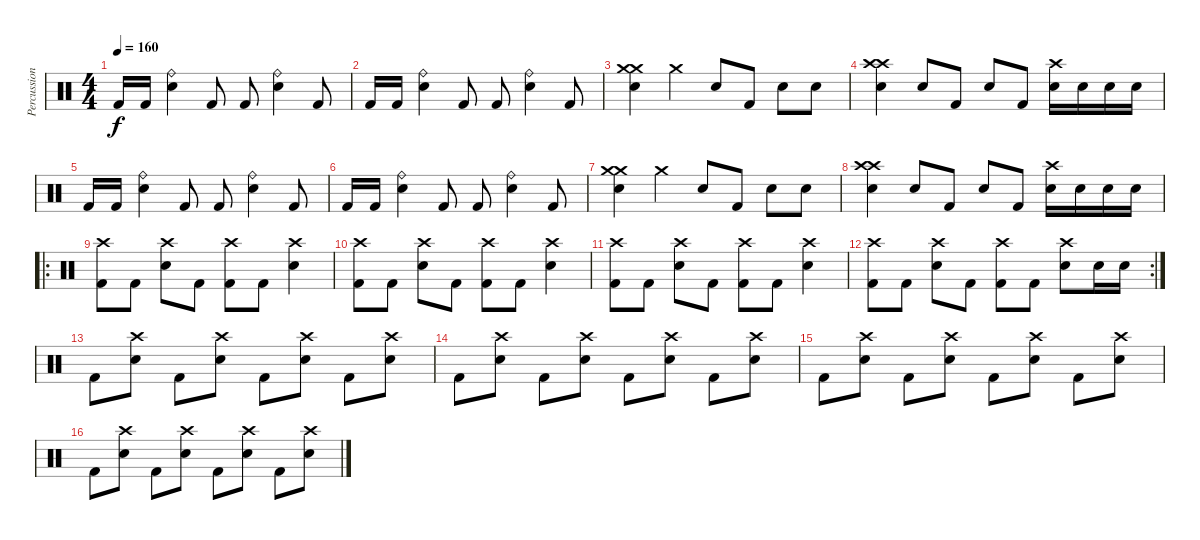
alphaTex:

\track ("Percussion" "Percussion") {instrument percussion}
\staff {score}
\articulation defaults
\ts (4 4)
\tempo 170
\tempo 160
\clef neutral
\ks c "Kick (hit) 2".16{dy f} "Kick (hit) 2".16
("Ride (bell)" "Electric Snare (hit)").4 "Kick (hit) 2".8 "Kick (hit) 2".8 ("Ride (bell)" "Electric Snare (hit)").4 "Kick (hit) 2".8 |
"Kick (hit) 2".16 "Kick (hit) 2".16 ("Ride (bell)" "Electric Snare (hit)").4 "Kick (hit) 2".8 "Kick (hit) 2".8 ("Ride (bell)" "Electric Snare (hit)").4 "Kick (hit) 2".8 |
("Crash medium (hit)" "Crash medium (hit)" "Electric Snare (hit)").4 "Crash medium (hit)".4 "Electric Snare (hit)".8 "Kick (hit) 2".8 "Electric Snare (hit)".8 "Electric Snare (hit)".8 |
("Crash high (hit)" "Crash high (hit)" "Electric Snare (hit)").4 "Electric Snare (hit)".8 "Kick (hit) 2".8 "Electric Snare (hit)".8 "Kick (hit) 2".8 ("Crash high (hit)" "Electric Snare (hit)").16 "Electric Snare (hit)".16 "Electric Snare (hit)".16 "Electric Snare (hit)".16 |
"Kick (hit) 2".16 "Kick (hit) 2".16 ("Ride (bell)" "Electric Snare (hit)").4 "Kick (hit) 2".8 "Kick (hit) 2".8 ("Ride (bell)" "Electric Snare (hit)").4 "Kick (hit) 2".8 |
"Kick (hit) 2".16 "Kick (hit) 2".16 ("Ride (bell)" "Electric Snare (hit)").4 "Kick (hit) 2".8 "Kick (hit) 2".8 ("Ride (bell)" "Electric Snare (hit)").4 "Kick (hit) 2".8 |
("Crash medium (hit)" "Crash medium (hit)" "Electric Snare (hit)").4 "Crash medium (hit)".4 "Electric Snare (hit)".8 "Kick (hit) 2".8 "Electric Snare (hit)".8 "Electric Snare (hit)".8 |
("Crash high (hit)" "Crash high (hit)" "Electric Snare (hit)").4 "Electric Snare (hit)".8 "Kick (hit) 2".8 "Electric Snare (hit)".8 "Kick (hit) 2".8 ("Crash high (hit)" "Electric Snare (hit)").16 "Electric Snare (hit)".16 "Electric Snare (hit)".16 "Electric Snare (hit)".16 |
\ro
("Crash high (hit)" "Kick (hit) 2").8 "Kick (hit) 2".8 ("Crash high (hit)" "Electric Snare (hit)").8 "Kick (hit) 2".8 ("Crash high (hit)" "Kick (hit) 2").8 "Kick (hit) 2".8 ("Crash high (hit)" "Electric Snare (hit)").4 |
("Crash high (hit)" "Kick (hit) 2").8 "Kick (hit) 2".8 ("Crash high (hit)" "Electric Snare (hit)").8 "Kick (hit) 2".8 ("Crash high (hit)" "Kick (hit) 2").8 "Kick (hit) 2".8 ("Crash high (hit)" "Electric Snare (hit)").4 |
("Crash high (hit)" "Kick (hit) 2").8 "Kick (hit) 2".8 ("Crash high (hit)" "Electric Snare (hit)").8 "Kick (hit) 2".8 ("Crash high (hit)" "Kick (hit) 2").8 "Kick (hit) 2".8 ("Crash high (hit)" "Electric Snare (hit)").4 |
\rc 2
("Crash high (hit)" "Kick (hit) 2").8 "Kick (hit) 2".8 ("Crash high (hit)" "Electric Snare (hit)").8 "Kick (hit) 2".8 ("Crash high (hit)" "Kick (hit) 2").8 "Kick (hit) 2".8 ("Crash high (hit)" "Electric Snare (hit)").8 "Electric Snare (hit)".16 "Electric Snare (hit)".16 |
"Kick (hit) 2".8 ("Crash high (hit)" "Electric Snare (hit)").8 "Kick (hit) 2".8 ("Crash high (hit)" "Electric Snare (hit)").8 "Kick (hit) 2".8 ("Crash high (hit)" "Electric Snare (hit)").8 "Kick (hit) 2".8 ("Crash high (hit)" "Electric Snare (hit)").8 |
"Kick (hit) 2".8 ("Crash high (hit)" "Electric Snare (hit)").8 "Kick (hit) 2".8 ("Crash high (hit)" "Electric Snare (hit)").8 "Kick (hit) 2".8 ("Crash high (hit)" "Electric Snare (hit)").8 "Kick (hit) 2".8 ("Crash high (hit)" "Electric Snare (hit)").8 |
"Kick (hit) 2".8 ("Crash high (hit)" "Electric Snare (hit)").8 "Kick (hit) 2".8 ("Crash high (hit)" "Electric Snare (hit)").8 "Kick (hit) 2".8 ("Crash high (hit)" "Electric Snare (hit)").8 "Kick (hit) 2".8 ("Crash high (hit)" "Electric Snare (hit)").8 |
"Kick (hit) 2".8 ("Crash high (hit)" "Electric Snare (hit)").8 "Kick (hit) 2".8 ("Crash high (hit)" "Electric Snare (hit)").8 "Kick (hit) 2".8 ("Crash high (hit)" "Electric Snare (hit)").8 "Kick (hit) 2".8 ("Crash high (hit)" "Electric Snare (hit)").8
